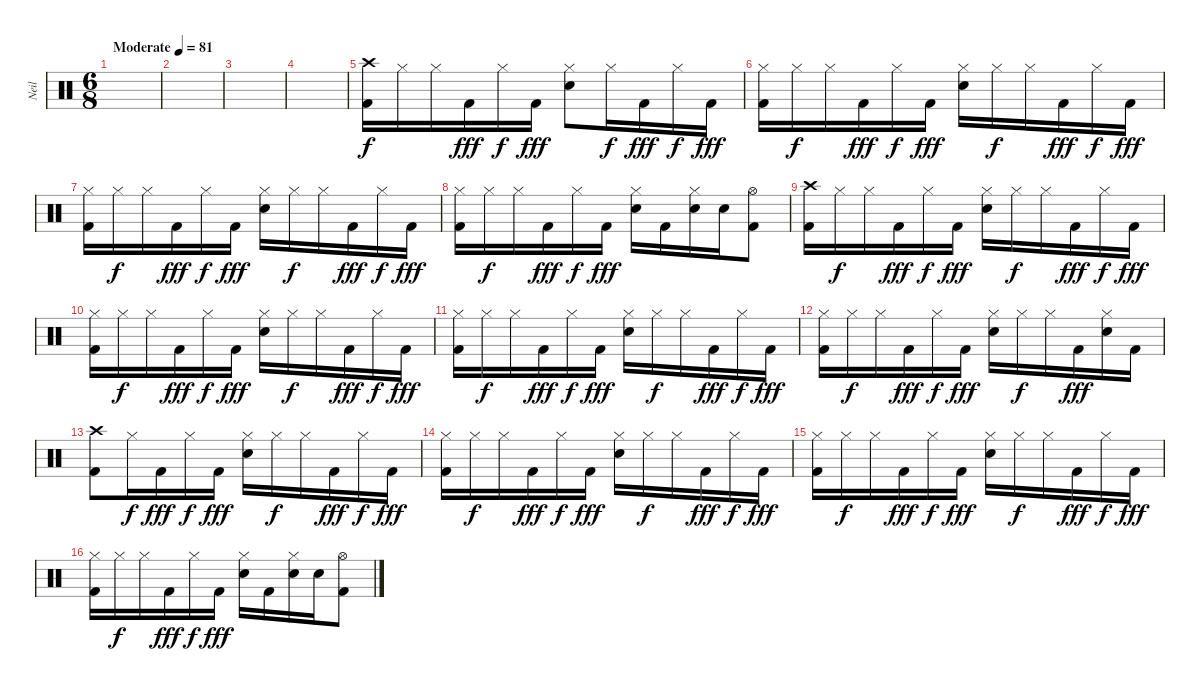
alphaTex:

\track ("Neil" "Neil") {instrument percussion}
\staff {score}
\articulation defaults
\ts (6 8)
\tempo (81 "Moderate")
\clef neutral
\ks c
|
|
|
|
("Crash high (hit)" "Kick (hit) 2").16 "Hi-Hat (closed)".16{dy f} "Hi-Hat (closed)".16 "Kick (hit) 2".16{dy fff} "Hi-Hat (closed)".16{dy f} "Kick (hit) 2".16{dy fff} ("Hi-Hat (closed)" "Electric Snare (hit)").8 "Hi-Hat (closed)".16{dy f} "Kick (hit) 2".16{dy fff} "Hi-Hat (closed)".16{dy f} "Kick (hit) 2".16{dy fff} |
("Hi-Hat (closed)" "Kick (hit) 2").16 "Hi-Hat (closed)".16{dy f} "Hi-Hat (closed)".16 "Kick (hit) 2".16{dy fff} "Hi-Hat (closed)".16{dy f} "Kick (hit) 2".16{dy fff} ("Hi-Hat (closed)" "Electric Snare (hit)").16 "Hi-Hat (closed)".16{dy f} "Hi-Hat (closed)".16 "Kick (hit) 2".16{dy fff} "Hi-Hat (closed)".16{dy f} "Kick (hit) 2".16{dy fff} |
("Hi-Hat (closed)" "Kick (hit) 2").16 "Hi-Hat (closed)".16{dy f} "Hi-Hat (closed)".16 "Kick (hit) 2".16{dy fff} "Hi-Hat (closed)".16{dy f} "Kick (hit) 2".16{dy fff} ("Hi-Hat (closed)" "Electric Snare (hit)").16 "Hi-Hat (closed)".16{dy f} "Hi-Hat (closed)".16 "Kick (hit) 2".16{dy fff} "Hi-Hat (closed)".16{dy f} "Kick (hit) 2".16{dy fff} |
("Hi-Hat (closed)" "Kick (hit) 2").16 "Hi-Hat (closed)".16{dy f} "Hi-Hat (closed)".16 "Kick (hit) 2".16{dy fff} "Hi-Hat (closed)".16{dy f} "Kick (hit) 2".16{dy fff} ("Hi-Hat (closed)" "Electric Snare (hit)").16 "Kick (hit) 2".16 ("Hi-Hat (closed)" "Electric Snare (hit)").16 "Electric Snare (hit)".16 ("Hi-Hat (open)" "Kick (hit) 2").8 |
("Crash high (hit)" "Kick (hit) 2").16 "Hi-Hat (closed)".16{dy f} "Hi-Hat (closed)".16 "Kick (hit) 2".16{dy fff} "Hi-Hat (closed)".16{dy f} "Kick (hit) 2".16{dy fff} ("Hi-Hat (closed)" "Electric Snare (hit)").16 "Hi-Hat (closed)".16{dy f} "Hi-Hat (closed)".16 "Kick (hit) 2".16{dy fff} "Hi-Hat (closed)".16{dy f} "Kick (hit) 2".16{dy fff} |
("Hi-Hat (closed)" "Kick (hit) 2").16 "Hi-Hat (closed)".16{dy f} "Hi-Hat (closed)".16 "Kick (hit) 2".16{dy fff} "Hi-Hat (closed)".16{dy f} "Kick (hit) 2".16{dy fff} ("Hi-Hat (closed)" "Electric Snare (hit)").16 "Hi-Hat (closed)".16{dy f} "Hi-Hat (closed)".16 "Kick (hit) 2".16{dy fff} "Hi-Hat (closed)".16{dy f} "Kick (hit) 2".16{dy fff} |
("Hi-Hat (closed)" "Kick (hit) 2").16 "Hi-Hat (closed)".16{dy f} "Hi-Hat (closed)".16 "Kick (hit) 2".16{dy fff} "Hi-Hat (closed)".16{dy f} "Kick (hit) 2".16{dy fff} ("Hi-Hat (closed)" "Electric Snare (hit)").16 "Hi-Hat (closed)".16{dy f} "Hi-Hat (closed)".16 "Kick (hit) 2".16{dy fff} "Hi-Hat (closed)".16{dy f} "Kick (hit) 2".16{dy fff} |
("Hi-Hat (closed)" "Kick (hit) 2").16 "Hi-Hat (closed)".16{dy f} "Hi-Hat (closed)".16 "Kick (hit) 2".16{dy fff} "Hi-Hat (closed)".16{dy f} "Kick (hit) 2".16{dy fff} ("Hi-Hat (closed)" "Electric Snare (hit)").16 "Hi-Hat (closed)".16{dy f} "Hi-Hat (closed)".16 "Kick (hit) 2".16{dy fff} ("Hi-Hat (closed)" "Electric Snare (hit)").16 "Kick (hit) 2".16 |
("Crash high (hit)" "Kick (hit) 2").8 "Hi-Hat (closed)".16{dy f} "Kick (hit) 2".16{dy fff} "Hi-Hat (closed)".16{dy f} "Kick (hit) 2".16{dy fff} ("Hi-Hat (closed)" "Electric Snare (hit)").16 "Hi-Hat (closed)".16{dy f} "Hi-Hat (closed)".16 "Kick (hit) 2".16{dy fff} "Hi-Hat (closed)".16{dy f} "Kick (hit) 2".16{dy fff} |
("Hi-Hat (closed)" "Kick (hit) 2").16 "Hi-Hat (closed)".16{dy f} "Hi-Hat (closed)".16 "Kick (hit) 2".16{dy fff} "Hi-Hat (closed)".16{dy f} "Kick (hit) 2".16{dy fff} ("Hi-Hat (closed)" "Electric Snare (hit)").16 "Hi-Hat (closed)".16{dy f} "Hi-Hat (closed)".16 "Kick (hit) 2".16{dy fff} "Hi-Hat (closed)".16{dy f} "Kick (hit) 2".16{dy fff} |
("Hi-Hat (closed)" "Kick (hit) 2").16 "Hi-Hat (closed)".16{dy f} "Hi-Hat (closed)".16 "Kick (hit) 2".16{dy fff} "Hi-Hat (closed)".16{dy f} "Kick (hit) 2".16{dy fff} ("Hi-Hat (closed)" "Electric Snare (hit)").16 "Hi-Hat (closed)".16{dy f} "Hi-Hat (closed)".16 "Kick (hit) 2".16{dy fff} "Hi-Hat (closed)".16{dy f} "Kick (hit) 2".16{dy fff} |
("Hi-Hat (closed)" "Kick (hit) 2").16 "Hi-Hat (closed)".16{dy f} "Hi-Hat (closed)".16 "Kick (hit) 2".16{dy fff} "Hi-Hat (closed)".16{dy f} "Kick (hit) 2".16{dy fff} ("Hi-Hat (closed)" "Electric Snare (hit)").16 "Kick (hit) 2".16 ("Hi-Hat (closed)" "Electric Snare (hit)").16 "Electric Snare (hit)".16 ("Hi-Hat (open)" "Kick (hit) 2").8
